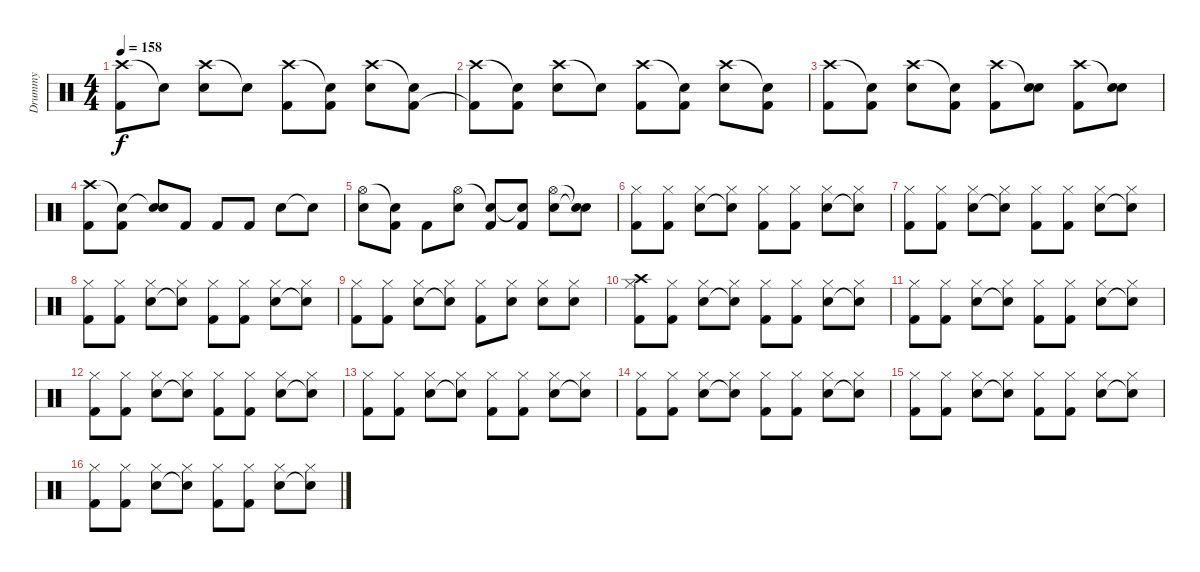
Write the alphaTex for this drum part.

\track ("Drummy" "Drummy") {instrument percussion bank 127}
\staff {score}
\articulation defaults
\ts (4 4)
\tempo 158
\clef neutral
\ks c
("Crash high (hit)" "Kick (hit) 2").8{dy f} "Snare (hit)"{t}.8 ("Crash high (hit)" "Electric Snare (hit)").8 "Snare (hit)"{t}.8 ("Crash high (hit)" "Kick (hit) 2").8 ("Snare (hit)"{t} "Kick (hit) 2").8 ("Crash high (hit)" "Electric Snare (hit)").8 ("Snare (hit)"{t} "Kick (hit) 2").8 |
("Crash high (hit)" "Kick (hit) 2"{t}).8 ("Snare (hit)"{t} "Kick (hit) 2").8 ("Crash high (hit)" "Electric Snare (hit)").8 "Snare (hit)"{t}.8 ("Crash high (hit)" "Kick (hit) 2").8 ("Snare (hit)"{t} "Kick (hit) 2").8 ("Crash high (hit)" "Electric Snare (hit)").8 ("Snare (hit)"{t} "Kick (hit) 2").8 |
("Crash high (hit)" "Kick (hit) 2").8 ("Snare (hit)"{t} "Kick (hit) 2").8 ("Crash high (hit)" "Electric Snare (hit)").8 ("Snare (hit)"{t} "Kick (hit) 2").8 ("Crash high (hit)" "Kick (hit) 2").8 ("Snare (hit)"{t} "Electric Snare (hit)").8 ("Crash high (hit)" "Kick (hit) 2").8 ("Snare (hit)"{t} "Electric Snare (hit)").8 |
("Crash high (hit)" "Kick (hit) 2").8 ("Snare (hit)"{t} "Kick (hit) 2").8 ("Snare (hit)"{t} "Electric Snare (hit)").8 "Kick (hit) 2".8 "Kick (hit) 2".8 "Kick (hit) 2".8 "Electric Snare (hit)".8 "Snare (hit)"{t}.8 |
("Hi-Hat (open)" "Electric Snare (hit)").8 ("Snare (hit)"{t} "Kick (hit) 2").8 "Kick (hit) 2".8 ("Hi-Hat (open)" "Electric Snare (hit)").8 ("Snare (hit)"{t} "Kick (hit) 2").8 ("Snare (hit)"{t} "Kick (hit) 2").8 ("Hi-Hat (open)" "Electric Snare (hit)").8 ("Snare (hit)"{t} "Snare (hit)"{t}).8 |
("Hi-Hat (closed)" "Kick (hit) 2").8 ("Hi-Hat (closed)" "Kick (hit) 2").8 ("Hi-Hat (closed)" "Electric Snare (hit)").8 ("Hi-Hat (closed)" "Snare (hit)"{t}).8 ("Hi-Hat (closed)" "Kick (hit) 2").8 ("Hi-Hat (closed)" "Kick (hit) 2").8 ("Hi-Hat (closed)" "Electric Snare (hit)").8 ("Hi-Hat (closed)" "Snare (hit)"{t}).8 |
("Hi-Hat (closed)" "Kick (hit) 2").8 ("Hi-Hat (closed)" "Kick (hit) 2").8 ("Hi-Hat (closed)" "Electric Snare (hit)").8 ("Hi-Hat (closed)" "Snare (hit)"{t}).8 ("Hi-Hat (closed)" "Kick (hit) 2").8 ("Hi-Hat (closed)" "Kick (hit) 2").8 ("Hi-Hat (closed)" "Electric Snare (hit)").8 ("Hi-Hat (closed)" "Snare (hit)"{t}).8 |
("Hi-Hat (closed)" "Kick (hit) 2").8 ("Hi-Hat (closed)" "Kick (hit) 2").8 ("Hi-Hat (closed)" "Electric Snare (hit)").8 ("Hi-Hat (closed)" "Snare (hit)"{t}).8 ("Hi-Hat (closed)" "Kick (hit) 2").8 ("Hi-Hat (closed)" "Kick (hit) 2").8 ("Hi-Hat (closed)" "Electric Snare (hit)").8 ("Hi-Hat (closed)" "Snare (hit)"{t}).8 |
("Hi-Hat (closed)" "Kick (hit) 2").8 ("Hi-Hat (closed)" "Kick (hit) 2").8 ("Hi-Hat (closed)" "Electric Snare (hit)").8 ("Hi-Hat (closed)" "Snare (hit)"{t}).8 ("Hi-Hat (closed)" "Kick (hit) 2").8 ("Hi-Hat (closed)" "Electric Snare (hit)").8 ("Hi-Hat (closed)" "Electric Snare (hit)").8 ("Hi-Hat (closed)" "Electric Snare (hit)").8 |
("Hi-Hat (closed)" "Crash high (hit)" "Kick (hit) 2").8 ("Hi-Hat (closed)" "Kick (hit) 2").8 ("Hi-Hat (closed)" "Electric Snare (hit)").8 ("Hi-Hat (closed)" "Snare (hit)"{t}).8 ("Hi-Hat (closed)" "Kick (hit) 2").8 ("Hi-Hat (closed)" "Kick (hit) 2").8 ("Hi-Hat (closed)" "Electric Snare (hit)").8 ("Hi-Hat (closed)" "Snare (hit)"{t}).8 |
("Hi-Hat (closed)" "Kick (hit) 2").8 ("Hi-Hat (closed)" "Kick (hit) 2").8 ("Hi-Hat (closed)" "Electric Snare (hit)").8 ("Hi-Hat (closed)" "Snare (hit)"{t}).8 ("Hi-Hat (closed)" "Kick (hit) 2").8 ("Hi-Hat (closed)" "Kick (hit) 2").8 ("Hi-Hat (closed)" "Electric Snare (hit)").8 ("Hi-Hat (closed)" "Snare (hit)"{t}).8 |
("Hi-Hat (closed)" "Kick (hit) 2").8 ("Hi-Hat (closed)" "Kick (hit) 2").8 ("Hi-Hat (closed)" "Electric Snare (hit)").8 ("Hi-Hat (closed)" "Snare (hit)"{t}).8 ("Hi-Hat (closed)" "Kick (hit) 2").8 ("Hi-Hat (closed)" "Kick (hit) 2").8 ("Hi-Hat (closed)" "Electric Snare (hit)").8 ("Hi-Hat (closed)" "Snare (hit)"{t}).8 |
("Hi-Hat (closed)" "Kick (hit) 2").8 ("Hi-Hat (closed)" "Kick (hit) 2").8 ("Hi-Hat (closed)" "Electric Snare (hit)").8 ("Hi-Hat (closed)" "Snare (hit)"{t}).8 ("Hi-Hat (closed)" "Kick (hit) 2").8 ("Hi-Hat (closed)" "Kick (hit) 2").8 ("Hi-Hat (closed)" "Electric Snare (hit)").8 ("Hi-Hat (closed)" "Snare (hit)"{t}).8 |
("Hi-Hat (closed)" "Kick (hit) 2").8 ("Hi-Hat (closed)" "Kick (hit) 2").8 ("Hi-Hat (closed)" "Electric Snare (hit)").8 ("Hi-Hat (closed)" "Snare (hit)"{t}).8 ("Hi-Hat (closed)" "Kick (hit) 2").8 ("Hi-Hat (closed)" "Kick (hit) 2").8 ("Hi-Hat (closed)" "Electric Snare (hit)").8 ("Hi-Hat (closed)" "Snare (hit)"{t}).8 |
("Hi-Hat (closed)" "Kick (hit) 2").8 ("Hi-Hat (closed)" "Kick (hit) 2").8 ("Hi-Hat (closed)" "Electric Snare (hit)").8 ("Hi-Hat (closed)" "Snare (hit)"{t}).8 ("Hi-Hat (closed)" "Kick (hit) 2").8 ("Hi-Hat (closed)" "Kick (hit) 2").8 ("Hi-Hat (closed)" "Electric Snare (hit)").8 ("Hi-Hat (closed)" "Snare (hit)"{t}).8 |
("Hi-Hat (closed)" "Kick (hit) 2").8 ("Hi-Hat (closed)" "Kick (hit) 2").8 ("Hi-Hat (closed)" "Electric Snare (hit)").8 ("Hi-Hat (closed)" "Snare (hit)"{t}).8 ("Hi-Hat (closed)" "Kick (hit) 2").8 ("Hi-Hat (closed)" "Kick (hit) 2").8 ("Hi-Hat (closed)" "Electric Snare (hit)").8 ("Hi-Hat (closed)" "Snare (hit)"{t}).8
